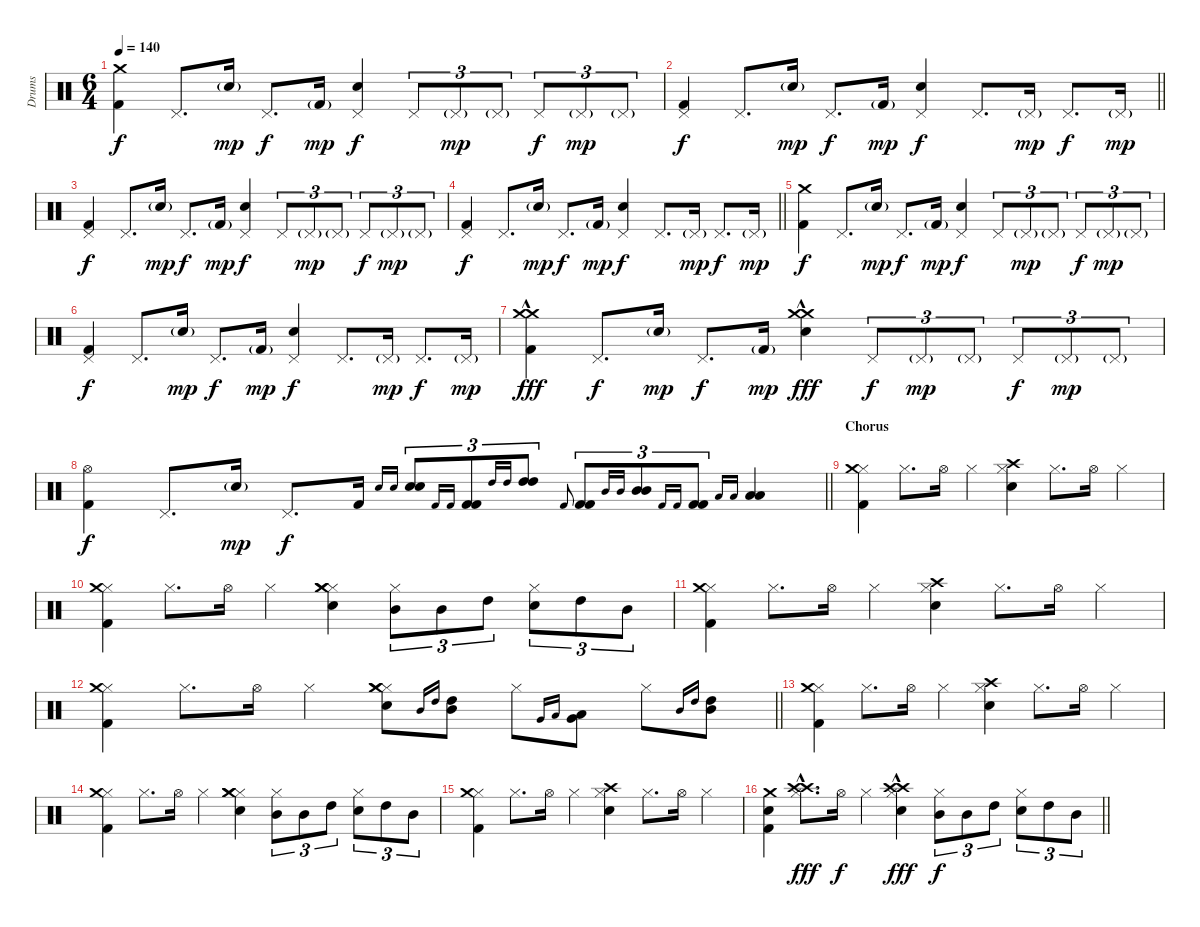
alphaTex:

\track ("Drums" "Drums") {instrument percussion}
\staff {score}
\articulation defaults
\ts (6 4)
\tempo 140
\clef neutral
\ks c
("Crash medium (hit)" "Kick (hit) 2").4{dy f} "Pedal Hi-Hat (hit)".8{d} "Electric Snare (hit)"{g}.16{dy mp} "Pedal Hi-Hat (hit)".8{d dy f} "Kick (hit) 2"{g}.16{dy mp} ("Pedal Hi-Hat (hit)" "Electric Snare (hit)").4{dy f} "Pedal Hi-Hat (hit)".8{tu (3 2)} "Pedal Hi-Hat (hit)"{g}.8{tu (3 2) dy mp} "Pedal Hi-Hat (hit)"{g}.8{tu (3 2)} "Pedal Hi-Hat (hit)".8{tu (3 2) dy f} "Pedal Hi-Hat (hit)"{g}.8{tu (3 2) dy mp} "Pedal Hi-Hat (hit)"{g}.8{tu (3 2)} |
\barLineRight lightlight
("Pedal Hi-Hat (hit)" "Kick (hit) 2").4{dy f} "Pedal Hi-Hat (hit)".8{d} "Electric Snare (hit)"{g}.16{dy mp} "Pedal Hi-Hat (hit)".8{d dy f} "Kick (hit) 2"{g}.16{dy mp} ("Pedal Hi-Hat (hit)" "Electric Snare (hit)").4{dy f} "Pedal Hi-Hat (hit)".8{d} "Pedal Hi-Hat (hit)"{g}.16{dy mp} "Pedal Hi-Hat (hit)".8{d dy f} "Pedal Hi-Hat (hit)"{g}.16{dy mp} |
("Pedal Hi-Hat (hit)" "Kick (hit) 2").4{dy f} "Pedal Hi-Hat (hit)".8{d} "Electric Snare (hit)"{g}.16{dy mp} "Pedal Hi-Hat (hit)".8{d dy f} "Kick (hit) 2"{g}.16{dy mp} ("Pedal Hi-Hat (hit)" "Electric Snare (hit)").4{dy f} "Pedal Hi-Hat (hit)".8{tu (3 2)} "Pedal Hi-Hat (hit)"{g}.8{tu (3 2) dy mp} "Pedal Hi-Hat (hit)"{g}.8{tu (3 2)} "Pedal Hi-Hat (hit)".8{tu (3 2) dy f} "Pedal Hi-Hat (hit)"{g}.8{tu (3 2) dy mp} "Pedal Hi-Hat (hit)"{g}.8{tu (3 2)} |
\barLineRight lightlight
("Pedal Hi-Hat (hit)" "Kick (hit) 2").4{dy f} "Pedal Hi-Hat (hit)".8{d} "Electric Snare (hit)"{g}.16{dy mp} "Pedal Hi-Hat (hit)".8{d dy f} "Kick (hit) 2"{g}.16{dy mp} ("Pedal Hi-Hat (hit)" "Electric Snare (hit)").4{dy f} "Pedal Hi-Hat (hit)".8{d} "Pedal Hi-Hat (hit)"{g}.16{dy mp} "Pedal Hi-Hat (hit)".8{d dy f} "Pedal Hi-Hat (hit)"{g}.16{dy mp} |
("Crash medium (hit)" "Kick (hit) 2").4{dy f} "Pedal Hi-Hat (hit)".8{d} "Electric Snare (hit)"{g}.16{dy mp} "Pedal Hi-Hat (hit)".8{d dy f} "Kick (hit) 2"{g}.16{dy mp} ("Pedal Hi-Hat (hit)" "Electric Snare (hit)").4{dy f} "Pedal Hi-Hat (hit)".8{tu (3 2)} "Pedal Hi-Hat (hit)"{g}.8{tu (3 2) dy mp} "Pedal Hi-Hat (hit)"{g}.8{tu (3 2)} "Pedal Hi-Hat (hit)".8{tu (3 2) dy f} "Pedal Hi-Hat (hit)"{g}.8{tu (3 2) dy mp} "Pedal Hi-Hat (hit)"{g}.8{tu (3 2)} |
("Pedal Hi-Hat (hit)" "Kick (hit) 2").4{dy f} "Pedal Hi-Hat (hit)".8{d} "Electric Snare (hit)"{g}.16{dy mp} "Pedal Hi-Hat (hit)".8{d dy f} "Kick (hit) 2"{g}.16{dy mp} ("Pedal Hi-Hat (hit)" "Electric Snare (hit)").4{dy f} "Pedal Hi-Hat (hit)".8{d} "Pedal Hi-Hat (hit)"{g}.16{dy mp} "Pedal Hi-Hat (hit)".8{d dy f} "Pedal Hi-Hat (hit)"{g}.16{dy mp} |
("Crash medium (hit)"{hac} "Crash medium (hit)" "Kick (hit) 2").4{dy fff volume 9} "Pedal Hi-Hat (hit)".8{d dy f} "Electric Snare (hit)"{g}.16{dy mp} "Pedal Hi-Hat (hit)".8{d dy f} "Kick (hit) 2"{g}.16{dy mp} ("Crash medium (hit)"{hac} "Crash medium (hit)" "Electric Snare (hit)").4{dy fff} "Pedal Hi-Hat (hit)".8{tu (3 2) dy f} "Pedal Hi-Hat (hit)"{g}.8{tu (3 2) dy mp} "Pedal Hi-Hat (hit)"{g}.8{tu (3 2)} "Pedal Hi-Hat (hit)".8{tu (3 2) dy f} "Pedal Hi-Hat (hit)"{g}.8{tu (3 2) dy mp} "Pedal Hi-Hat (hit)"{g}.8{tu (3 2)} |
\barLineRight lightlight
("Hi-Hat (open)" "Kick (hit) 2").4{dy f volume 10} "Pedal Hi-Hat (hit)".8{d} "Electric Snare (hit)"{g}.16{dy mp} "Pedal Hi-Hat (hit)".8{d dy f} "Kick (hit) 2".16 "Electric Snare (hit)".16{gr onbeat} "Electric Snare (hit)".16{gr onbeat} ("Electric Snare (hit)" "Electric Snare (hit)").8{tu (3 2)} "Kick (hit) 2".16{gr onbeat} "Kick (hit) 2".16{gr onbeat} ("Kick (hit) 2" "Kick (hit) 2").8{tu (3 2)} "High Tom (hit)".16{gr onbeat} "High Tom (hit)".16{gr onbeat} ("High Tom (hit)" "High Tom (hit)").8{tu (3 2)} "Kick (hit) 2".8{gr onbeat} ("Kick (hit) 2" "Kick (hit) 2").8{tu (3 2)} "Mid Tom (hit)".16{gr onbeat} "Mid Tom (hit)".16{gr onbeat} ("Mid Tom (hit)" "Mid Tom (hit)").8{tu (3 2)} "Kick (hit) 2".16{gr onbeat} "Kick (hit) 2".16{gr onbeat} ("Kick (hit) 2" "Kick (hit) 2").8{tu (3 2)} "Low Tom (hit)".16{gr onbeat} "Low Tom (hit)".16{gr onbeat} ("Low Tom (hit)" "Low Tom (hit)").4 |
\section ("" "Chorus")
("Hi-Hat (closed)" "Crash medium (hit)" "Kick (hit) 2").4 "Hi-Hat (closed)".8{d} "Hi-Hat (open)".16 "Hi-Hat (closed)".4 ("Hi-Hat (closed)" "Crash high (hit)" "Electric Snare (hit)").4 "Hi-Hat (closed)".8{d} "Hi-Hat (open)".16 "Hi-Hat (closed)".4 |
("Hi-Hat (closed)" "Crash medium (hit)" "Kick (hit) 2").4 "Hi-Hat (closed)".8{d} "Hi-Hat (open)".16 "Hi-Hat (closed)".4 ("Hi-Hat (closed)" "Crash medium (hit)" "Crash medium (hit)" "Electric Snare (hit)").4 ("Hi-Hat (closed)" "Mid Tom (hit)").8{tu (3 2)} "Mid Tom (hit)".8{tu (3 2)} "High Tom (hit)".8{tu (3 2)} ("Hi-Hat (closed)" "Electric Snare (hit)").8{tu (3 2)} "High Tom (hit)".8{tu (3 2)} "Mid Tom (hit)".8{tu (3 2)} |
("Hi-Hat (closed)" "Crash medium (hit)" "Kick (hit) 2").4 "Hi-Hat (closed)".8{d} "Hi-Hat (open)".16 "Hi-Hat (closed)".4 ("Hi-Hat (closed)" "Crash high (hit)" "Electric Snare (hit)").4 "Hi-Hat (closed)".8{d} "Hi-Hat (open)".16 "Hi-Hat (closed)".4 |
\barLineRight lightlight
("Hi-Hat (closed)" "Crash medium (hit)" "Kick (hit) 2").4 "Hi-Hat (closed)".8{d} "Hi-Hat (open)".16 "Hi-Hat (closed)".4 ("Hi-Hat (closed)" "Crash medium (hit)" "Crash medium (hit)" "Electric Snare (hit)").8 "Mid Tom (hit)".16{gr onbeat} "High Tom (hit)".16{gr onbeat} ("Mid Tom (hit)" "High Tom (hit)").8 "Hi-Hat (closed)".8 "Very Low Tom (hit)".16{gr onbeat} "Low Tom (hit)".16{gr onbeat} ("Very Low Tom (hit)" "Low Tom (hit)").8 "Hi-Hat (closed)".8 "Mid Tom (hit)".16{gr onbeat} "High Tom (hit)".16{gr onbeat} ("Mid Tom (hit)" "High Tom (hit)").8 |
("Hi-Hat (closed)" "Crash medium (hit)" "Kick (hit) 2").4 "Hi-Hat (closed)".8{d} "Hi-Hat (open)".16 "Hi-Hat (closed)".4 ("Hi-Hat (closed)" "Crash high (hit)" "Electric Snare (hit)").4 "Hi-Hat (closed)".8{d} "Hi-Hat (open)".16 "Hi-Hat (closed)".4 |
("Hi-Hat (closed)" "Crash medium (hit)" "Kick (hit) 2").4 "Hi-Hat (closed)".8{d} "Hi-Hat (open)".16 "Hi-Hat (closed)".4 ("Hi-Hat (closed)" "Crash medium (hit)" "Crash medium (hit)" "Electric Snare (hit)").4 ("Hi-Hat (closed)" "Mid Tom (hit)").8{tu (3 2)} "Mid Tom (hit)".8{tu (3 2)} "High Tom (hit)".8{tu (3 2)} ("Hi-Hat (closed)" "Electric Snare (hit)").8{tu (3 2)} "High Tom (hit)".8{tu (3 2)} "Mid Tom (hit)".8{tu (3 2)} |
("Hi-Hat (closed)" "Crash medium (hit)" "Kick (hit) 2").4 "Hi-Hat (closed)".8{d} "Hi-Hat (open)".16 "Hi-Hat (closed)".4 ("Hi-Hat (closed)" "Crash high (hit)" "Electric Snare (hit)").4 "Hi-Hat (closed)".8{d} "Hi-Hat (open)".16 "Hi-Hat (closed)".4 |
\barLineRight lightlight
("Crash medium (hit)" "Electric Snare (hit)" "Kick (hit) 2").4 ("Hi-Hat (closed)" "Crash high (hit)" "Crash high (hit)"{hac}).8{d dy fff} "Hi-Hat (open)".16{dy f} "Hi-Hat (closed)".4 ("Hi-Hat (closed)" "Crash high (hit)"{hac} "Crash high (hit)"{hac} "Electric Snare (hit)").4{dy fff} ("Hi-Hat (closed)" "Mid Tom (hit)").8{tu (3 2) dy f} "Mid Tom (hit)".8{tu (3 2)} "High Tom (hit)".8{tu (3 2)} ("Hi-Hat (closed)" "Electric Snare (hit)").8{tu (3 2)} "High Tom (hit)".8{tu (3 2)} "Mid Tom (hit)".8{tu (3 2)}
